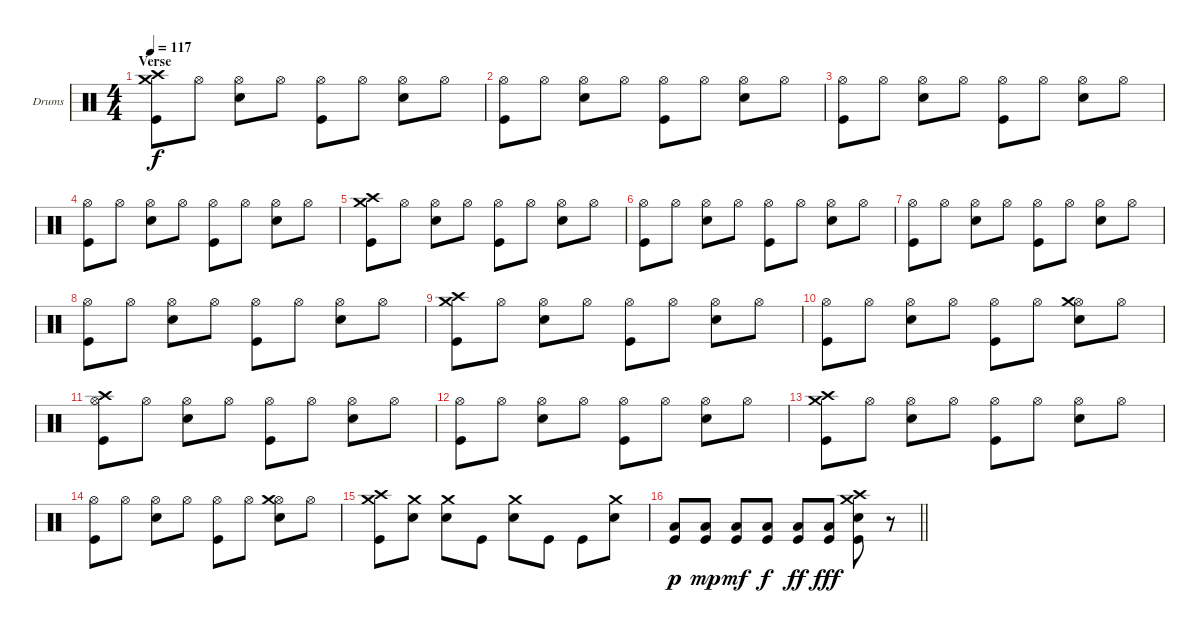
\bracketExtendMode groupsimilarinstruments
\firstSystemTrackNameOrientation horizontal
\otherSystemsTrackNameOrientation horizontal
\track ("Drumkit" "Drums") {instrument percussion}
\staff {score}
\articulation defaults
\ts (4 4)
\section ("" "Verse")
\tempo 117
\clef neutral
\ks c
("Crash medium (hit)" "Crash high (hit)" "Kick (hit)").8{dy f} "Hi-Hat (open)".8 ("Hi-Hat (open)" "Snare (hit) 2").8 "Hi-Hat (open)".8 ("Hi-Hat (open)" "Kick (hit)").8 "Hi-Hat (open)".8 ("Hi-Hat (open)" "Snare (hit) 2").8 "Hi-Hat (open)".8 |
("Hi-Hat (open)" "Kick (hit)").8 "Hi-Hat (open)".8 ("Hi-Hat (open)" "Snare (hit) 2").8 "Hi-Hat (open)".8 ("Hi-Hat (open)" "Kick (hit)").8 "Hi-Hat (open)".8 ("Hi-Hat (open)" "Snare (hit) 2").8 "Hi-Hat (open)".8 |
("Hi-Hat (open)" "Kick (hit)").8 "Hi-Hat (open)".8 ("Hi-Hat (open)" "Snare (hit) 2").8 "Hi-Hat (open)".8 ("Hi-Hat (open)" "Kick (hit)").8 "Hi-Hat (open)".8 ("Hi-Hat (open)" "Snare (hit) 2").8 "Hi-Hat (open)".8 |
("Hi-Hat (open)" "Kick (hit)").8 "Hi-Hat (open)".8 ("Hi-Hat (open)" "Snare (hit) 2").8 "Hi-Hat (open)".8 ("Hi-Hat (open)" "Kick (hit)").8 "Hi-Hat (open)".8 ("Hi-Hat (open)" "Snare (hit) 2").8 "Hi-Hat (open)".8 |
("Crash medium (hit)" "Crash high (hit)" "Kick (hit)").8 "Hi-Hat (open)".8 ("Hi-Hat (open)" "Snare (hit) 2").8 "Hi-Hat (open)".8 ("Hi-Hat (open)" "Kick (hit)").8 "Hi-Hat (open)".8 ("Hi-Hat (open)" "Snare (hit) 2").8 "Hi-Hat (open)".8 |
("Hi-Hat (open)" "Kick (hit)").8 "Hi-Hat (open)".8 ("Hi-Hat (open)" "Snare (hit) 2").8 "Hi-Hat (open)".8 ("Hi-Hat (open)" "Kick (hit)").8 "Hi-Hat (open)".8 ("Hi-Hat (open)" "Snare (hit) 2").8 "Hi-Hat (open)".8 |
("Hi-Hat (open)" "Kick (hit)").8 "Hi-Hat (open)".8 ("Hi-Hat (open)" "Snare (hit) 2").8 "Hi-Hat (open)".8 ("Hi-Hat (open)" "Kick (hit)").8 "Hi-Hat (open)".8 ("Hi-Hat (open)" "Snare (hit) 2").8 "Hi-Hat (open)".8 |
("Hi-Hat (open)" "Kick (hit)").8 "Hi-Hat (open)".8 ("Hi-Hat (open)" "Snare (hit) 2").8 "Hi-Hat (open)".8 ("Hi-Hat (open)" "Kick (hit)").8 "Hi-Hat (open)".8 ("Hi-Hat (open)" "Snare (hit) 2").8 "Hi-Hat (open)".8 |
("Crash medium (hit)" "Crash high (hit)" "Kick (hit)").8 "Hi-Hat (open)".8 ("Hi-Hat (open)" "Snare (hit) 2").8 "Hi-Hat (open)".8 ("Hi-Hat (open)" "Kick (hit)").8 "Hi-Hat (open)".8 ("Hi-Hat (open)" "Snare (hit) 2").8 "Hi-Hat (open)".8 |
("Hi-Hat (open)" "Kick (hit)").8 "Hi-Hat (open)".8 ("Hi-Hat (open)" "Snare (hit) 2").8 "Hi-Hat (open)".8 ("Hi-Hat (open)" "Kick (hit)").8 "Hi-Hat (open)".8 ("Hi-Hat (open)" "Crash medium (hit)" "Snare (hit) 2").8 "Hi-Hat (open)".8 |
("Hi-Hat (open)" "Crash high (hit)" "Kick (hit)").8 "Hi-Hat (open)".8 ("Hi-Hat (open)" "Snare (hit) 2").8 "Hi-Hat (open)".8 ("Hi-Hat (open)" "Kick (hit)").8 "Hi-Hat (open)".8 ("Hi-Hat (open)" "Snare (hit) 2").8 "Hi-Hat (open)".8 |
("Hi-Hat (open)" "Kick (hit)").8 "Hi-Hat (open)".8 ("Hi-Hat (open)" "Snare (hit) 2").8 "Hi-Hat (open)".8 ("Hi-Hat (open)" "Kick (hit)").8 "Hi-Hat (open)".8 ("Hi-Hat (open)" "Snare (hit) 2").8 "Hi-Hat (open)".8 |
("Crash medium (hit)" "Crash high (hit)" "Kick (hit)").8 "Hi-Hat (open)".8 ("Hi-Hat (open)" "Snare (hit) 2").8 "Hi-Hat (open)".8 ("Hi-Hat (open)" "Kick (hit)").8 "Hi-Hat (open)".8 ("Hi-Hat (open)" "Snare (hit) 2").8 "Hi-Hat (open)".8 |
("Hi-Hat (open)" "Kick (hit)").8 "Hi-Hat (open)".8 ("Hi-Hat (open)" "Snare (hit) 2").8 "Hi-Hat (open)".8 ("Hi-Hat (open)" "Kick (hit)").8 "Hi-Hat (open)".8 ("Hi-Hat (open)" "Crash medium (hit)" "Snare (hit) 2").8 "Hi-Hat (open)".8 |
("Crash medium (hit)" "Crash high (hit)" "Kick (hit)").8 ("Crash medium (hit)" "Snare (hit) 2").8 ("Crash medium (hit)" "Snare (hit) 2").8 "Kick (hit)".8 ("Crash medium (hit)" "Snare (hit) 2").8 "Kick (hit)".8 "Kick (hit)".8 ("Crash medium (hit)" "Snare (hit) 2").8 |
\barLineRight lightlight
("Low Tom (hit)" "Kick (hit)").8{dy p} ("Low Tom (hit)" "Kick (hit)").8{dy mp} ("Low Tom (hit)" "Kick (hit)").8{dy mf} ("Low Tom (hit)" "Kick (hit)").8{dy f} ("Low Tom (hit)" "Kick (hit)").8{dy ff} ("Low Tom (hit)" "Kick (hit)").8{dy fff} ("Kick (hit)" "Crash high (hit)" "Crash medium (hit)" "Snare (hit) 2").8 r.8
